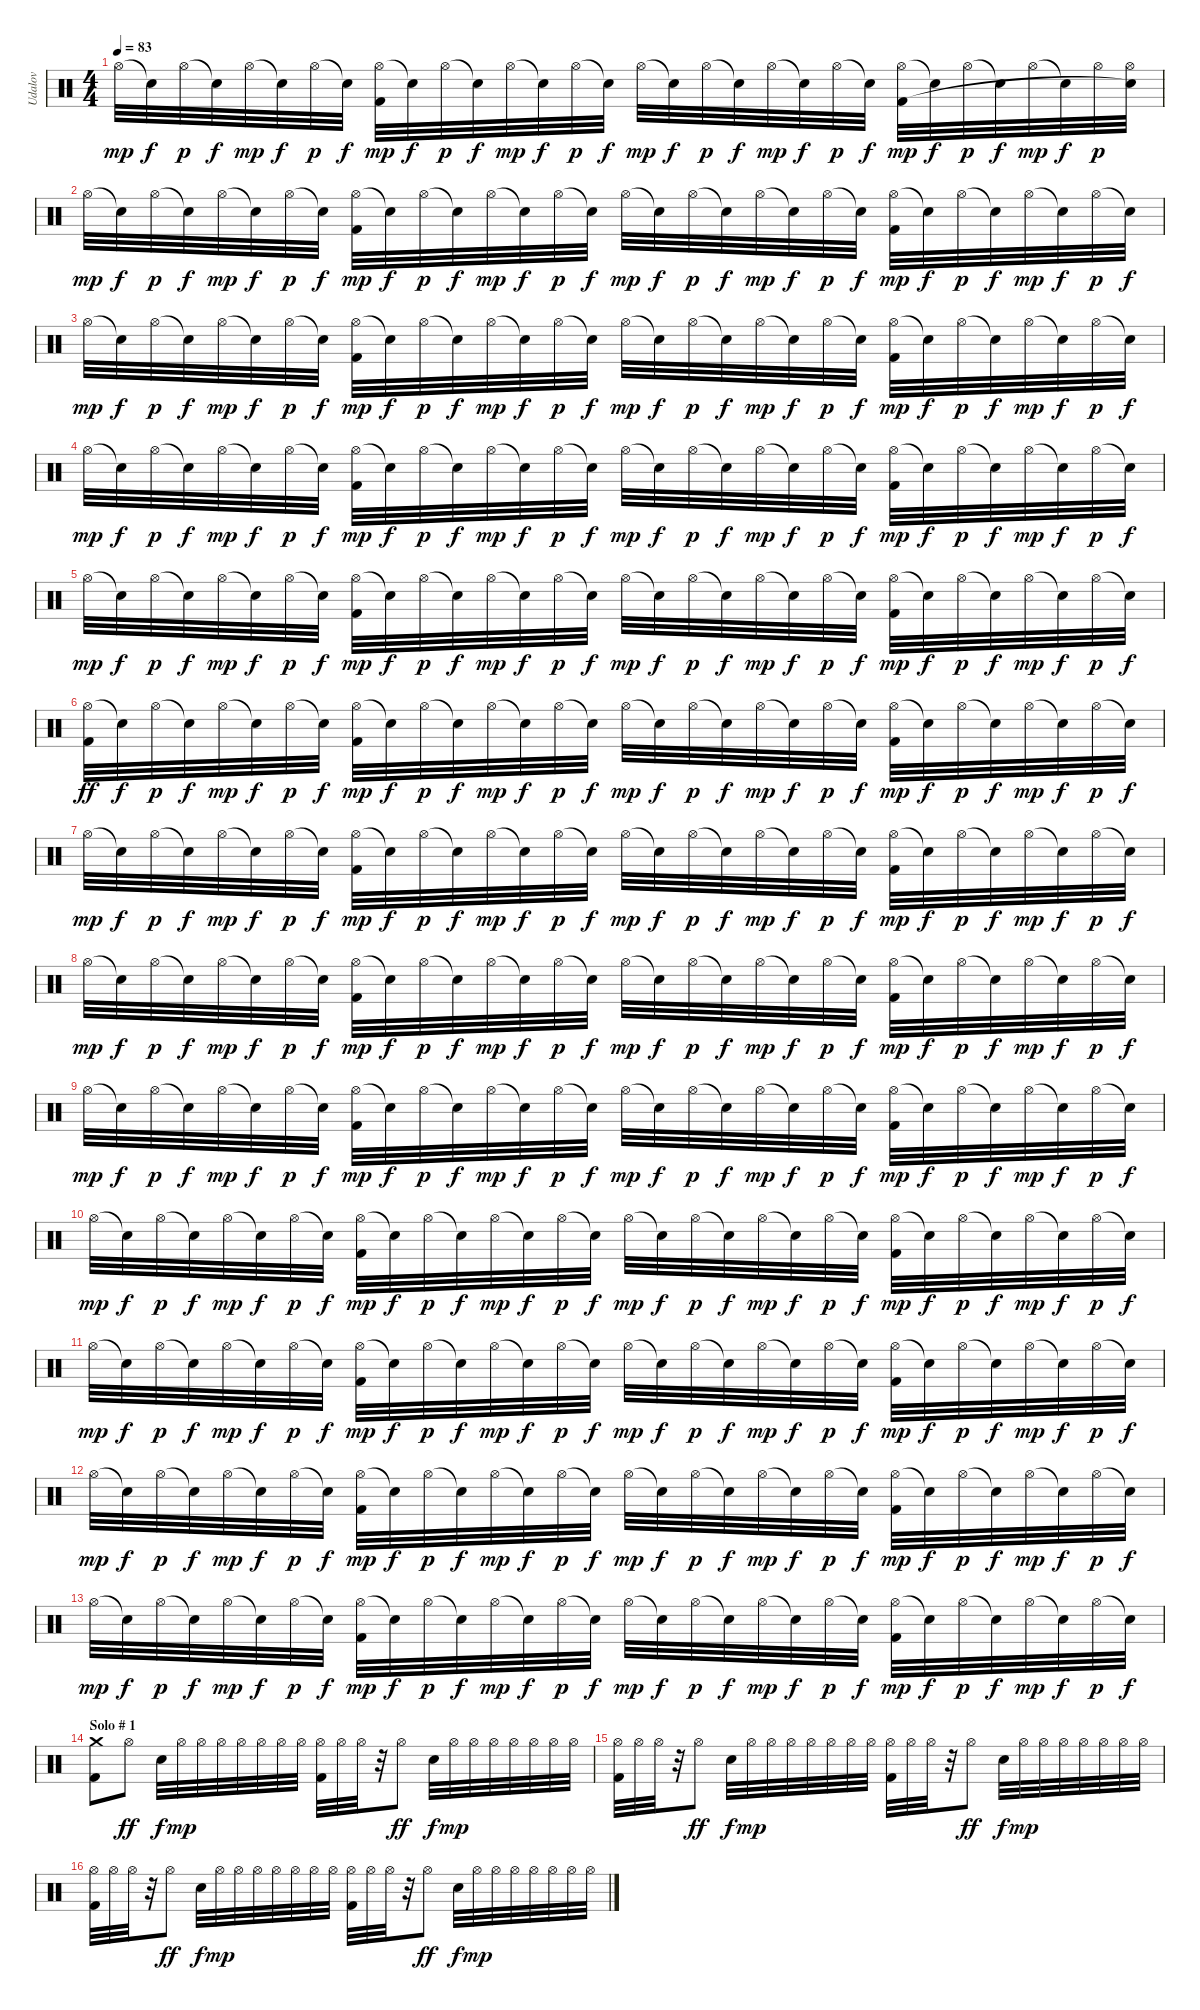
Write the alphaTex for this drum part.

\track ("Udalov" "Udalov") {instrument percussion}
\staff {score}
\articulation defaults
\ts (4 4)
\tempo 83
\clef neutral
\ks c "Hi-Hat (open)".32{dy mp} "Snare (hit)"{t}.32{dy f} "Hi-Hat (open)".32{dy p} "Snare (hit)"{t}.32{dy f} "Hi-Hat (open)".32{dy mp} "Snare (hit)"{t}.32{dy f} "Hi-Hat (open)".32{dy p} "Snare (hit)"{t}.32{dy f}
("Hi-Hat (open)" "Kick (hit) 2").32{dy mp} "Snare (hit)"{t}.32{dy f} "Hi-Hat (open)".32{dy p} "Snare (hit)"{t}.32{dy f} "Hi-Hat (open)".32{dy mp} "Snare (hit)"{t}.32{dy f} "Hi-Hat (open)".32{dy p} "Snare (hit)"{t}.32{dy f} "Hi-Hat (open)".32{dy mp} "Snare (hit)"{t}.32{dy f} "Hi-Hat (open)".32{dy p} "Snare (hit)"{t}.32{dy f} "Hi-Hat (open)".32{dy mp} "Snare (hit)"{t}.32{dy f} "Hi-Hat (open)".32{dy p} "Snare (hit)"{t}.32{dy f} ("Hi-Hat (open)" "Kick (hit) 2").32{dy mp} "Snare (hit)"{t}.32{dy f} "Hi-Hat (open)".32{dy p} "Snare (hit)"{t}.32{dy f} "Hi-Hat (open)".32{dy mp} "Snare (hit)"{t}.32{dy f} "Hi-Hat (open)".32{dy p} ("Hi-Hat (open)" "Snare (hit)"{t}).32 |
"Hi-Hat (open)".32{dy mp} "Snare (hit)"{t}.32{dy f} "Hi-Hat (open)".32{dy p} "Snare (hit)"{t}.32{dy f} "Hi-Hat (open)".32{dy mp} "Snare (hit)"{t}.32{dy f} "Hi-Hat (open)".32{dy p} "Snare (hit)"{t}.32{dy f} ("Hi-Hat (open)" "Kick (hit) 2").32{dy mp} "Snare (hit)"{t}.32{dy f} "Hi-Hat (open)".32{dy p} "Snare (hit)"{t}.32{dy f} "Hi-Hat (open)".32{dy mp} "Snare (hit)"{t}.32{dy f} "Hi-Hat (open)".32{dy p} "Snare (hit)"{t}.32{dy f} "Hi-Hat (open)".32{dy mp} "Snare (hit)"{t}.32{dy f} "Hi-Hat (open)".32{dy p} "Snare (hit)"{t}.32{dy f} "Hi-Hat (open)".32{dy mp} "Snare (hit)"{t}.32{dy f} "Hi-Hat (open)".32{dy p} "Snare (hit)"{t}.32{dy f} ("Hi-Hat (open)" "Kick (hit) 2").32{dy mp} "Snare (hit)"{t}.32{dy f} "Hi-Hat (open)".32{dy p} "Snare (hit)"{t}.32{dy f} "Hi-Hat (open)".32{dy mp} "Snare (hit)"{t}.32{dy f} "Hi-Hat (open)".32{dy p} "Snare (hit)"{t}.32{dy f} |
"Hi-Hat (open)".32{dy mp} "Snare (hit)"{t}.32{dy f} "Hi-Hat (open)".32{dy p} "Snare (hit)"{t}.32{dy f} "Hi-Hat (open)".32{dy mp} "Snare (hit)"{t}.32{dy f} "Hi-Hat (open)".32{dy p} "Snare (hit)"{t}.32{dy f} ("Hi-Hat (open)" "Kick (hit) 2").32{dy mp} "Snare (hit)"{t}.32{dy f} "Hi-Hat (open)".32{dy p} "Snare (hit)"{t}.32{dy f} "Hi-Hat (open)".32{dy mp} "Snare (hit)"{t}.32{dy f} "Hi-Hat (open)".32{dy p} "Snare (hit)"{t}.32{dy f} "Hi-Hat (open)".32{dy mp} "Snare (hit)"{t}.32{dy f} "Hi-Hat (open)".32{dy p} "Snare (hit)"{t}.32{dy f} "Hi-Hat (open)".32{dy mp} "Snare (hit)"{t}.32{dy f} "Hi-Hat (open)".32{dy p} "Snare (hit)"{t}.32{dy f} ("Hi-Hat (open)" "Kick (hit) 2").32{dy mp} "Snare (hit)"{t}.32{dy f} "Hi-Hat (open)".32{dy p} "Snare (hit)"{t}.32{dy f} "Hi-Hat (open)".32{dy mp} "Snare (hit)"{t}.32{dy f} "Hi-Hat (open)".32{dy p} "Snare (hit)"{t}.32{dy f} |
"Hi-Hat (open)".32{dy mp} "Snare (hit)"{t}.32{dy f} "Hi-Hat (open)".32{dy p} "Snare (hit)"{t}.32{dy f} "Hi-Hat (open)".32{dy mp} "Snare (hit)"{t}.32{dy f} "Hi-Hat (open)".32{dy p} "Snare (hit)"{t}.32{dy f} ("Hi-Hat (open)" "Kick (hit) 2").32{dy mp} "Snare (hit)"{t}.32{dy f} "Hi-Hat (open)".32{dy p} "Snare (hit)"{t}.32{dy f} "Hi-Hat (open)".32{dy mp} "Snare (hit)"{t}.32{dy f} "Hi-Hat (open)".32{dy p} "Snare (hit)"{t}.32{dy f} "Hi-Hat (open)".32{dy mp} "Snare (hit)"{t}.32{dy f} "Hi-Hat (open)".32{dy p} "Snare (hit)"{t}.32{dy f} "Hi-Hat (open)".32{dy mp} "Snare (hit)"{t}.32{dy f} "Hi-Hat (open)".32{dy p} "Snare (hit)"{t}.32{dy f} ("Hi-Hat (open)" "Kick (hit) 2").32{dy mp} "Snare (hit)"{t}.32{dy f} "Hi-Hat (open)".32{dy p} "Snare (hit)"{t}.32{dy f} "Hi-Hat (open)".32{dy mp} "Snare (hit)"{t}.32{dy f} "Hi-Hat (open)".32{dy p} "Snare (hit)"{t}.32{dy f} |
"Hi-Hat (open)".32{dy mp} "Snare (hit)"{t}.32{dy f} "Hi-Hat (open)".32{dy p} "Snare (hit)"{t}.32{dy f} "Hi-Hat (open)".32{dy mp} "Snare (hit)"{t}.32{dy f} "Hi-Hat (open)".32{dy p} "Snare (hit)"{t}.32{dy f} ("Hi-Hat (open)" "Kick (hit) 2").32{dy mp} "Snare (hit)"{t}.32{dy f} "Hi-Hat (open)".32{dy p} "Snare (hit)"{t}.32{dy f} "Hi-Hat (open)".32{dy mp} "Snare (hit)"{t}.32{dy f} "Hi-Hat (open)".32{dy p} "Snare (hit)"{t}.32{dy f} "Hi-Hat (open)".32{dy mp} "Snare (hit)"{t}.32{dy f} "Hi-Hat (open)".32{dy p} "Snare (hit)"{t}.32{dy f} "Hi-Hat (open)".32{dy mp} "Snare (hit)"{t}.32{dy f} "Hi-Hat (open)".32{dy p} "Snare (hit)"{t}.32{dy f} ("Hi-Hat (open)" "Kick (hit) 2").32{dy mp} "Snare (hit)"{t}.32{dy f} "Hi-Hat (open)".32{dy p} "Snare (hit)"{t}.32{dy f} "Hi-Hat (open)".32{dy mp} "Snare (hit)"{t}.32{dy f} "Hi-Hat (open)".32{dy p} "Snare (hit)"{t}.32{dy f} |
("Hi-Hat (open)" "Kick (hit) 2").32{dy ff} "Snare (hit)"{t}.32{dy f} "Hi-Hat (open)".32{dy p} "Snare (hit)"{t}.32{dy f} "Hi-Hat (open)".32{dy mp} "Snare (hit)"{t}.32{dy f} "Hi-Hat (open)".32{dy p} "Snare (hit)"{t}.32{dy f} ("Hi-Hat (open)" "Kick (hit) 2").32{dy mp} "Snare (hit)"{t}.32{dy f} "Hi-Hat (open)".32{dy p} "Snare (hit)"{t}.32{dy f} "Hi-Hat (open)".32{dy mp} "Snare (hit)"{t}.32{dy f} "Hi-Hat (open)".32{dy p} "Snare (hit)"{t}.32{dy f} "Hi-Hat (open)".32{dy mp} "Snare (hit)"{t}.32{dy f} "Hi-Hat (open)".32{dy p} "Snare (hit)"{t}.32{dy f} "Hi-Hat (open)".32{dy mp} "Snare (hit)"{t}.32{dy f} "Hi-Hat (open)".32{dy p} "Snare (hit)"{t}.32{dy f} ("Hi-Hat (open)" "Kick (hit) 2").32{dy mp} "Snare (hit)"{t}.32{dy f} "Hi-Hat (open)".32{dy p} "Snare (hit)"{t}.32{dy f} "Hi-Hat (open)".32{dy mp} "Snare (hit)"{t}.32{dy f} "Hi-Hat (open)".32{dy p} "Snare (hit)"{t}.32{dy f} |
"Hi-Hat (open)".32{dy mp} "Snare (hit)"{t}.32{dy f} "Hi-Hat (open)".32{dy p} "Snare (hit)"{t}.32{dy f} "Hi-Hat (open)".32{dy mp} "Snare (hit)"{t}.32{dy f} "Hi-Hat (open)".32{dy p} "Snare (hit)"{t}.32{dy f} ("Hi-Hat (open)" "Kick (hit) 2").32{dy mp} "Snare (hit)"{t}.32{dy f} "Hi-Hat (open)".32{dy p} "Snare (hit)"{t}.32{dy f} "Hi-Hat (open)".32{dy mp} "Snare (hit)"{t}.32{dy f} "Hi-Hat (open)".32{dy p} "Snare (hit)"{t}.32{dy f} "Hi-Hat (open)".32{dy mp} "Snare (hit)"{t}.32{dy f} "Hi-Hat (open)".32{dy p} "Snare (hit)"{t}.32{dy f} "Hi-Hat (open)".32{dy mp} "Snare (hit)"{t}.32{dy f} "Hi-Hat (open)".32{dy p} "Snare (hit)"{t}.32{dy f} ("Hi-Hat (open)" "Kick (hit) 2").32{dy mp} "Snare (hit)"{t}.32{dy f} "Hi-Hat (open)".32{dy p} "Snare (hit)"{t}.32{dy f} "Hi-Hat (open)".32{dy mp} "Snare (hit)"{t}.32{dy f} "Hi-Hat (open)".32{dy p} "Snare (hit)"{t}.32{dy f} |
"Hi-Hat (open)".32{dy mp} "Snare (hit)"{t}.32{dy f} "Hi-Hat (open)".32{dy p} "Snare (hit)"{t}.32{dy f} "Hi-Hat (open)".32{dy mp} "Snare (hit)"{t}.32{dy f} "Hi-Hat (open)".32{dy p} "Snare (hit)"{t}.32{dy f} ("Hi-Hat (open)" "Kick (hit) 2").32{dy mp} "Snare (hit)"{t}.32{dy f} "Hi-Hat (open)".32{dy p} "Snare (hit)"{t}.32{dy f} "Hi-Hat (open)".32{dy mp} "Snare (hit)"{t}.32{dy f} "Hi-Hat (open)".32{dy p} "Snare (hit)"{t}.32{dy f} "Hi-Hat (open)".32{dy mp} "Snare (hit)"{t}.32{dy f} "Hi-Hat (open)".32{dy p} "Snare (hit)"{t}.32{dy f} "Hi-Hat (open)".32{dy mp} "Snare (hit)"{t}.32{dy f} "Hi-Hat (open)".32{dy p} "Snare (hit)"{t}.32{dy f} ("Hi-Hat (open)" "Kick (hit) 2").32{dy mp} "Snare (hit)"{t}.32{dy f} "Hi-Hat (open)".32{dy p} "Snare (hit)"{t}.32{dy f} "Hi-Hat (open)".32{dy mp} "Snare (hit)"{t}.32{dy f} "Hi-Hat (open)".32{dy p} "Snare (hit)"{t}.32{dy f} |
"Hi-Hat (open)".32{dy mp} "Snare (hit)"{t}.32{dy f} "Hi-Hat (open)".32{dy p} "Snare (hit)"{t}.32{dy f} "Hi-Hat (open)".32{dy mp} "Snare (hit)"{t}.32{dy f} "Hi-Hat (open)".32{dy p} "Snare (hit)"{t}.32{dy f} ("Hi-Hat (open)" "Kick (hit) 2").32{dy mp} "Snare (hit)"{t}.32{dy f} "Hi-Hat (open)".32{dy p} "Snare (hit)"{t}.32{dy f} "Hi-Hat (open)".32{dy mp} "Snare (hit)"{t}.32{dy f} "Hi-Hat (open)".32{dy p} "Snare (hit)"{t}.32{dy f} "Hi-Hat (open)".32{dy mp} "Snare (hit)"{t}.32{dy f} "Hi-Hat (open)".32{dy p} "Snare (hit)"{t}.32{dy f} "Hi-Hat (open)".32{dy mp} "Snare (hit)"{t}.32{dy f} "Hi-Hat (open)".32{dy p} "Snare (hit)"{t}.32{dy f} ("Hi-Hat (open)" "Kick (hit) 2").32{dy mp} "Snare (hit)"{t}.32{dy f} "Hi-Hat (open)".32{dy p} "Snare (hit)"{t}.32{dy f} "Hi-Hat (open)".32{dy mp} "Snare (hit)"{t}.32{dy f} "Hi-Hat (open)".32{dy p} "Snare (hit)"{t}.32{dy f} |
"Hi-Hat (open)".32{dy mp} "Snare (hit)"{t}.32{dy f} "Hi-Hat (open)".32{dy p} "Snare (hit)"{t}.32{dy f} "Hi-Hat (open)".32{dy mp} "Snare (hit)"{t}.32{dy f} "Hi-Hat (open)".32{dy p} "Snare (hit)"{t}.32{dy f} ("Hi-Hat (open)" "Kick (hit) 2").32{dy mp} "Snare (hit)"{t}.32{dy f} "Hi-Hat (open)".32{dy p} "Snare (hit)"{t}.32{dy f} "Hi-Hat (open)".32{dy mp} "Snare (hit)"{t}.32{dy f} "Hi-Hat (open)".32{dy p} "Snare (hit)"{t}.32{dy f} "Hi-Hat (open)".32{dy mp} "Snare (hit)"{t}.32{dy f} "Hi-Hat (open)".32{dy p} "Snare (hit)"{t}.32{dy f} "Hi-Hat (open)".32{dy mp} "Snare (hit)"{t}.32{dy f} "Hi-Hat (open)".32{dy p} "Snare (hit)"{t}.32{dy f} ("Hi-Hat (open)" "Kick (hit) 2").32{dy mp} "Snare (hit)"{t}.32{dy f} "Hi-Hat (open)".32{dy p} "Snare (hit)"{t}.32{dy f} "Hi-Hat (open)".32{dy mp} "Snare (hit)"{t}.32{dy f} "Hi-Hat (open)".32{dy p} "Snare (hit)"{t}.32{dy f} |
"Hi-Hat (open)".32{dy mp} "Snare (hit)"{t}.32{dy f} "Hi-Hat (open)".32{dy p} "Snare (hit)"{t}.32{dy f} "Hi-Hat (open)".32{dy mp} "Snare (hit)"{t}.32{dy f} "Hi-Hat (open)".32{dy p} "Snare (hit)"{t}.32{dy f} ("Hi-Hat (open)" "Kick (hit) 2").32{dy mp} "Snare (hit)"{t}.32{dy f} "Hi-Hat (open)".32{dy p} "Snare (hit)"{t}.32{dy f} "Hi-Hat (open)".32{dy mp} "Snare (hit)"{t}.32{dy f} "Hi-Hat (open)".32{dy p} "Snare (hit)"{t}.32{dy f} "Hi-Hat (open)".32{dy mp} "Snare (hit)"{t}.32{dy f} "Hi-Hat (open)".32{dy p} "Snare (hit)"{t}.32{dy f} "Hi-Hat (open)".32{dy mp} "Snare (hit)"{t}.32{dy f} "Hi-Hat (open)".32{dy p} "Snare (hit)"{t}.32{dy f} ("Hi-Hat (open)" "Kick (hit) 2").32{dy mp} "Snare (hit)"{t}.32{dy f} "Hi-Hat (open)".32{dy p} "Snare (hit)"{t}.32{dy f} "Hi-Hat (open)".32{dy mp} "Snare (hit)"{t}.32{dy f} "Hi-Hat (open)".32{dy p} "Snare (hit)"{t}.32{dy f} |
"Hi-Hat (open)".32{dy mp} "Snare (hit)"{t}.32{dy f} "Hi-Hat (open)".32{dy p} "Snare (hit)"{t}.32{dy f} "Hi-Hat (open)".32{dy mp} "Snare (hit)"{t}.32{dy f} "Hi-Hat (open)".32{dy p} "Snare (hit)"{t}.32{dy f} ("Hi-Hat (open)" "Kick (hit) 2").32{dy mp} "Snare (hit)"{t}.32{dy f} "Hi-Hat (open)".32{dy p} "Snare (hit)"{t}.32{dy f} "Hi-Hat (open)".32{dy mp} "Snare (hit)"{t}.32{dy f} "Hi-Hat (open)".32{dy p} "Snare (hit)"{t}.32{dy f} "Hi-Hat (open)".32{dy mp} "Snare (hit)"{t}.32{dy f} "Hi-Hat (open)".32{dy p} "Snare (hit)"{t}.32{dy f} "Hi-Hat (open)".32{dy mp} "Snare (hit)"{t}.32{dy f} "Hi-Hat (open)".32{dy p} "Snare (hit)"{t}.32{dy f} ("Hi-Hat (open)" "Kick (hit) 2").32{dy mp} "Snare (hit)"{t}.32{dy f} "Hi-Hat (open)".32{dy p} "Snare (hit)"{t}.32{dy f} "Hi-Hat (open)".32{dy mp} "Snare (hit)"{t}.32{dy f} "Hi-Hat (open)".32{dy p} "Snare (hit)"{t}.32{dy f} |
"Hi-Hat (open)".32{dy mp} "Snare (hit)"{t}.32{dy f} "Hi-Hat (open)".32{dy p} "Snare (hit)"{t}.32{dy f} "Hi-Hat (open)".32{dy mp} "Snare (hit)"{t}.32{dy f} "Hi-Hat (open)".32{dy p} "Snare (hit)"{t}.32{dy f} ("Hi-Hat (open)" "Kick (hit) 2").32{dy mp} "Snare (hit)"{t}.32{dy f} "Hi-Hat (open)".32{dy p} "Snare (hit)"{t}.32{dy f} "Hi-Hat (open)".32{dy mp} "Snare (hit)"{t}.32{dy f} "Hi-Hat (open)".32{dy p} "Snare (hit)"{t}.32{dy f} "Hi-Hat (open)".32{dy mp} "Snare (hit)"{t}.32{dy f} "Hi-Hat (open)".32{dy p} "Snare (hit)"{t}.32{dy f} "Hi-Hat (open)".32{dy mp} "Snare (hit)"{t}.32{dy f} "Hi-Hat (open)".32{dy p} "Snare (hit)"{t}.32{dy f} ("Hi-Hat (open)" "Kick (hit) 2").32{dy mp} "Snare (hit)"{t}.32{dy f} "Hi-Hat (open)".32{dy p} "Snare (hit)"{t}.32{dy f} "Hi-Hat (open)".32{dy mp} "Snare (hit)"{t}.32{dy f} "Hi-Hat (open)".32{dy p} "Snare (hit)"{t}.32{dy f} |
\section ("" "Solo # 1")
("Crash medium (hit)" "Kick (hit) 2").8 "Hi-Hat (open)".8{dy ff} "Snare (hit) 2".32{dy f} "Hi-Hat (open)".32{dy mp} "Hi-Hat (open)".32 "Hi-Hat (open)".32 "Hi-Hat (open)".32 "Hi-Hat (open)".32 "Hi-Hat (open)".32 "Hi-Hat (open)".32 ("Hi-Hat (open)" "Kick (hit) 2").32 "Hi-Hat (open)".32 "Hi-Hat (open)".32 r.32 "Hi-Hat (open)".8{dy ff} "Snare (hit) 2".32{dy f} "Hi-Hat (open)".32{dy mp} "Hi-Hat (open)".32 "Hi-Hat (open)".32 "Hi-Hat (open)".32 "Hi-Hat (open)".32 "Hi-Hat (open)".32 "Hi-Hat (open)".32 |
("Hi-Hat (open)" "Kick (hit) 2").32 "Hi-Hat (open)".32 "Hi-Hat (open)".32 r.32 "Hi-Hat (open)".8{dy ff} "Snare (hit) 2".32{dy f} "Hi-Hat (open)".32{dy mp} "Hi-Hat (open)".32 "Hi-Hat (open)".32 "Hi-Hat (open)".32 "Hi-Hat (open)".32 "Hi-Hat (open)".32 "Hi-Hat (open)".32 ("Hi-Hat (open)" "Kick (hit) 2").32 "Hi-Hat (open)".32 "Hi-Hat (open)".32 r.32 "Hi-Hat (open)".8{dy ff} "Snare (hit) 2".32{dy f} "Hi-Hat (open)".32{dy mp} "Hi-Hat (open)".32 "Hi-Hat (open)".32 "Hi-Hat (open)".32 "Hi-Hat (open)".32 "Hi-Hat (open)".32 "Hi-Hat (open)".32 |
("Hi-Hat (open)" "Kick (hit) 2").32 "Hi-Hat (open)".32 "Hi-Hat (open)".32 r.32 "Hi-Hat (open)".8{dy ff} "Snare (hit) 2".32{dy f} "Hi-Hat (open)".32{dy mp} "Hi-Hat (open)".32 "Hi-Hat (open)".32 "Hi-Hat (open)".32 "Hi-Hat (open)".32 "Hi-Hat (open)".32 "Hi-Hat (open)".32 ("Hi-Hat (open)" "Kick (hit) 2").32 "Hi-Hat (open)".32 "Hi-Hat (open)".32 r.32 "Hi-Hat (open)".8{dy ff} "Snare (hit) 2".32{dy f} "Hi-Hat (open)".32{dy mp} "Hi-Hat (open)".32 "Hi-Hat (open)".32 "Hi-Hat (open)".32 "Hi-Hat (open)".32 "Hi-Hat (open)".32 "Hi-Hat (open)".32
